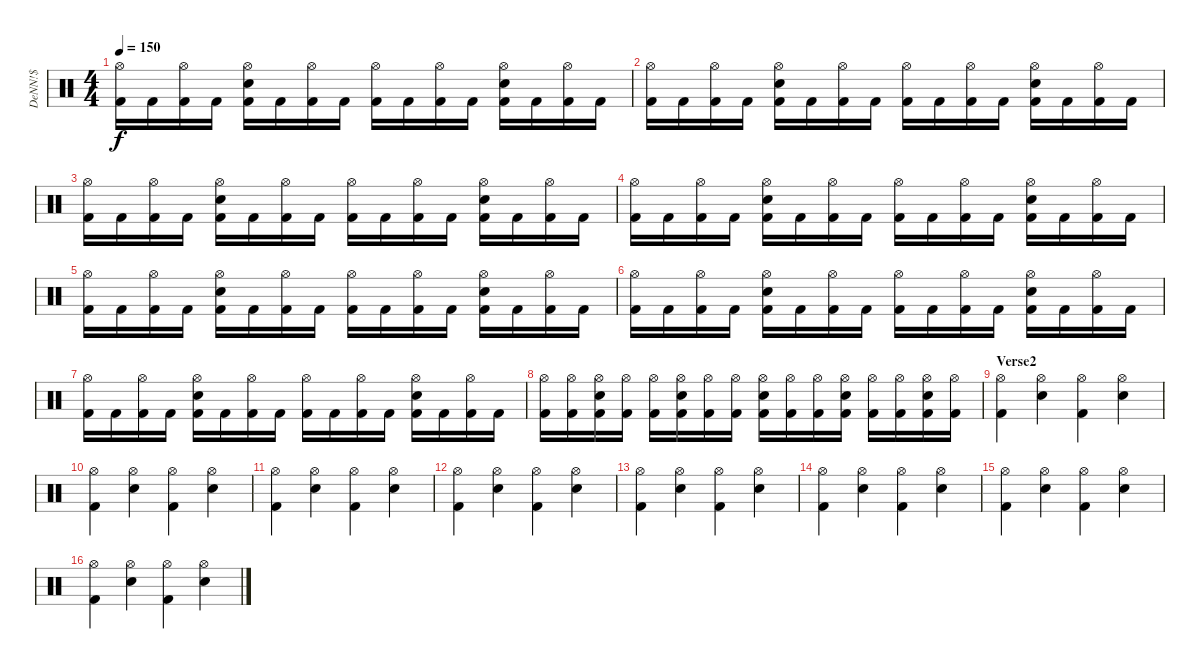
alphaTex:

\track ("DeNN!$" "DeNN!$") {instrument percussion}
\staff {score}
\articulation defaults
\ts (4 4)
\tempo 150
\clef neutral
\ks c
("Hi-Hat (open)" "Kick (hit) 2").16{dy f} "Kick (hit) 2".16 ("Hi-Hat (open)" "Kick (hit) 2").16 "Kick (hit) 2".16 ("Hi-Hat (open)" "Snare (hit) 2" "Kick (hit) 2").16 "Kick (hit) 2".16 ("Hi-Hat (open)" "Kick (hit) 2").16 "Kick (hit) 2".16 ("Hi-Hat (open)" "Kick (hit) 2").16 "Kick (hit) 2".16 ("Hi-Hat (open)" "Kick (hit) 2").16 "Kick (hit) 2".16 ("Hi-Hat (open)" "Snare (hit) 2" "Kick (hit) 2").16 "Kick (hit) 2".16 ("Hi-Hat (open)" "Kick (hit) 2").16 "Kick (hit) 2".16 |
("Hi-Hat (open)" "Kick (hit) 2").16 "Kick (hit) 2".16 ("Hi-Hat (open)" "Kick (hit) 2").16 "Kick (hit) 2".16 ("Hi-Hat (open)" "Snare (hit) 2" "Kick (hit) 2").16 "Kick (hit) 2".16 ("Hi-Hat (open)" "Kick (hit) 2").16 "Kick (hit) 2".16 ("Hi-Hat (open)" "Kick (hit) 2").16 "Kick (hit) 2".16 ("Hi-Hat (open)" "Kick (hit) 2").16 "Kick (hit) 2".16 ("Hi-Hat (open)" "Snare (hit) 2" "Kick (hit) 2").16 "Kick (hit) 2".16 ("Hi-Hat (open)" "Kick (hit) 2").16 "Kick (hit) 2".16 |
("Hi-Hat (open)" "Kick (hit) 2").16 "Kick (hit) 2".16 ("Hi-Hat (open)" "Kick (hit) 2").16 "Kick (hit) 2".16 ("Hi-Hat (open)" "Snare (hit) 2" "Kick (hit) 2").16 "Kick (hit) 2".16 ("Hi-Hat (open)" "Kick (hit) 2").16 "Kick (hit) 2".16 ("Hi-Hat (open)" "Kick (hit) 2").16 "Kick (hit) 2".16 ("Hi-Hat (open)" "Kick (hit) 2").16 "Kick (hit) 2".16 ("Hi-Hat (open)" "Snare (hit) 2" "Kick (hit) 2").16 "Kick (hit) 2".16 ("Hi-Hat (open)" "Kick (hit) 2").16 "Kick (hit) 2".16 |
("Hi-Hat (open)" "Kick (hit) 2").16 "Kick (hit) 2".16 ("Hi-Hat (open)" "Kick (hit) 2").16 "Kick (hit) 2".16 ("Hi-Hat (open)" "Snare (hit) 2" "Kick (hit) 2").16 "Kick (hit) 2".16 ("Hi-Hat (open)" "Kick (hit) 2").16 "Kick (hit) 2".16 ("Hi-Hat (open)" "Kick (hit) 2").16 "Kick (hit) 2".16 ("Hi-Hat (open)" "Kick (hit) 2").16 "Kick (hit) 2".16 ("Hi-Hat (open)" "Snare (hit) 2" "Kick (hit) 2").16 "Kick (hit) 2".16 ("Hi-Hat (open)" "Kick (hit) 2").16 "Kick (hit) 2".16 |
("Hi-Hat (open)" "Kick (hit) 2").16 "Kick (hit) 2".16 ("Hi-Hat (open)" "Kick (hit) 2").16 "Kick (hit) 2".16 ("Hi-Hat (open)" "Snare (hit) 2" "Kick (hit) 2").16 "Kick (hit) 2".16 ("Hi-Hat (open)" "Kick (hit) 2").16 "Kick (hit) 2".16 ("Hi-Hat (open)" "Kick (hit) 2").16 "Kick (hit) 2".16 ("Hi-Hat (open)" "Kick (hit) 2").16 "Kick (hit) 2".16 ("Hi-Hat (open)" "Snare (hit) 2" "Kick (hit) 2").16 "Kick (hit) 2".16 ("Hi-Hat (open)" "Kick (hit) 2").16 "Kick (hit) 2".16 |
("Hi-Hat (open)" "Kick (hit) 2").16 "Kick (hit) 2".16 ("Hi-Hat (open)" "Kick (hit) 2").16 "Kick (hit) 2".16 ("Hi-Hat (open)" "Snare (hit) 2" "Kick (hit) 2").16 "Kick (hit) 2".16 ("Hi-Hat (open)" "Kick (hit) 2").16 "Kick (hit) 2".16 ("Hi-Hat (open)" "Kick (hit) 2").16 "Kick (hit) 2".16 ("Hi-Hat (open)" "Kick (hit) 2").16 "Kick (hit) 2".16 ("Hi-Hat (open)" "Snare (hit) 2" "Kick (hit) 2").16 "Kick (hit) 2".16 ("Hi-Hat (open)" "Kick (hit) 2").16 "Kick (hit) 2".16 |
("Hi-Hat (open)" "Kick (hit) 2").16 "Kick (hit) 2".16 ("Hi-Hat (open)" "Kick (hit) 2").16 "Kick (hit) 2".16 ("Hi-Hat (open)" "Snare (hit) 2" "Kick (hit) 2").16 "Kick (hit) 2".16 ("Hi-Hat (open)" "Kick (hit) 2").16 "Kick (hit) 2".16 ("Hi-Hat (open)" "Kick (hit) 2").16 "Kick (hit) 2".16 ("Hi-Hat (open)" "Kick (hit) 2").16 "Kick (hit) 2".16 ("Hi-Hat (open)" "Snare (hit) 2" "Kick (hit) 2").16 "Kick (hit) 2".16 ("Hi-Hat (open)" "Kick (hit) 2").16 "Kick (hit) 2".16 |
("Hi-Hat (open)" "Kick (hit) 2").16 ("Hi-Hat (open)" "Kick (hit) 2").16 ("Hi-Hat (open)" "Snare (hit) 2" "Kick (hit) 2").16 ("Hi-Hat (open)" "Kick (hit) 2").16 ("Hi-Hat (open)" "Kick (hit) 2").16 ("Hi-Hat (open)" "Snare (hit) 2" "Kick (hit) 2").16 ("Hi-Hat (open)" "Kick (hit) 2").16 ("Hi-Hat (open)" "Kick (hit) 2").16 ("Hi-Hat (open)" "Snare (hit) 2" "Kick (hit) 2").16 ("Hi-Hat (open)" "Kick (hit) 2").16 ("Hi-Hat (open)" "Kick (hit) 2").16 ("Hi-Hat (open)" "Snare (hit) 2" "Kick (hit) 2").16 ("Hi-Hat (open)" "Kick (hit) 2").16 ("Hi-Hat (open)" "Kick (hit) 2").16 ("Hi-Hat (open)" "Snare (hit) 2" "Kick (hit) 2").16 ("Hi-Hat (open)" "Kick (hit) 2").16 |
\section ("" "Verse2")
("Kick (hit) 2" "Hi-Hat (open)").4 ("Snare (hit) 2" "Hi-Hat (open)").4 ("Kick (hit) 2" "Hi-Hat (open)").4 ("Snare (hit) 2" "Hi-Hat (open)").4 |
("Kick (hit) 2" "Hi-Hat (open)").4 ("Snare (hit) 2" "Hi-Hat (open)").4 ("Kick (hit) 2" "Hi-Hat (open)").4 ("Snare (hit) 2" "Hi-Hat (open)").4 |
("Kick (hit) 2" "Hi-Hat (open)").4 ("Snare (hit) 2" "Hi-Hat (open)").4 ("Kick (hit) 2" "Hi-Hat (open)").4 ("Snare (hit) 2" "Hi-Hat (open)").4 |
("Kick (hit) 2" "Hi-Hat (open)").4 ("Snare (hit) 2" "Hi-Hat (open)").4 ("Kick (hit) 2" "Hi-Hat (open)").4 ("Snare (hit) 2" "Hi-Hat (open)").4 |
("Kick (hit) 2" "Hi-Hat (open)").4 ("Snare (hit) 2" "Hi-Hat (open)").4 ("Kick (hit) 2" "Hi-Hat (open)").4 ("Snare (hit) 2" "Hi-Hat (open)").4 |
("Kick (hit) 2" "Hi-Hat (open)").4 ("Snare (hit) 2" "Hi-Hat (open)").4 ("Kick (hit) 2" "Hi-Hat (open)").4 ("Snare (hit) 2" "Hi-Hat (open)").4 |
("Kick (hit) 2" "Hi-Hat (open)").4 ("Snare (hit) 2" "Hi-Hat (open)").4 ("Kick (hit) 2" "Hi-Hat (open)").4 ("Snare (hit) 2" "Hi-Hat (open)").4 |
("Kick (hit) 2" "Hi-Hat (open)").4 ("Snare (hit) 2" "Hi-Hat (open)").4 ("Kick (hit) 2" "Hi-Hat (open)").4 ("Snare (hit) 2" "Hi-Hat (open)").4
